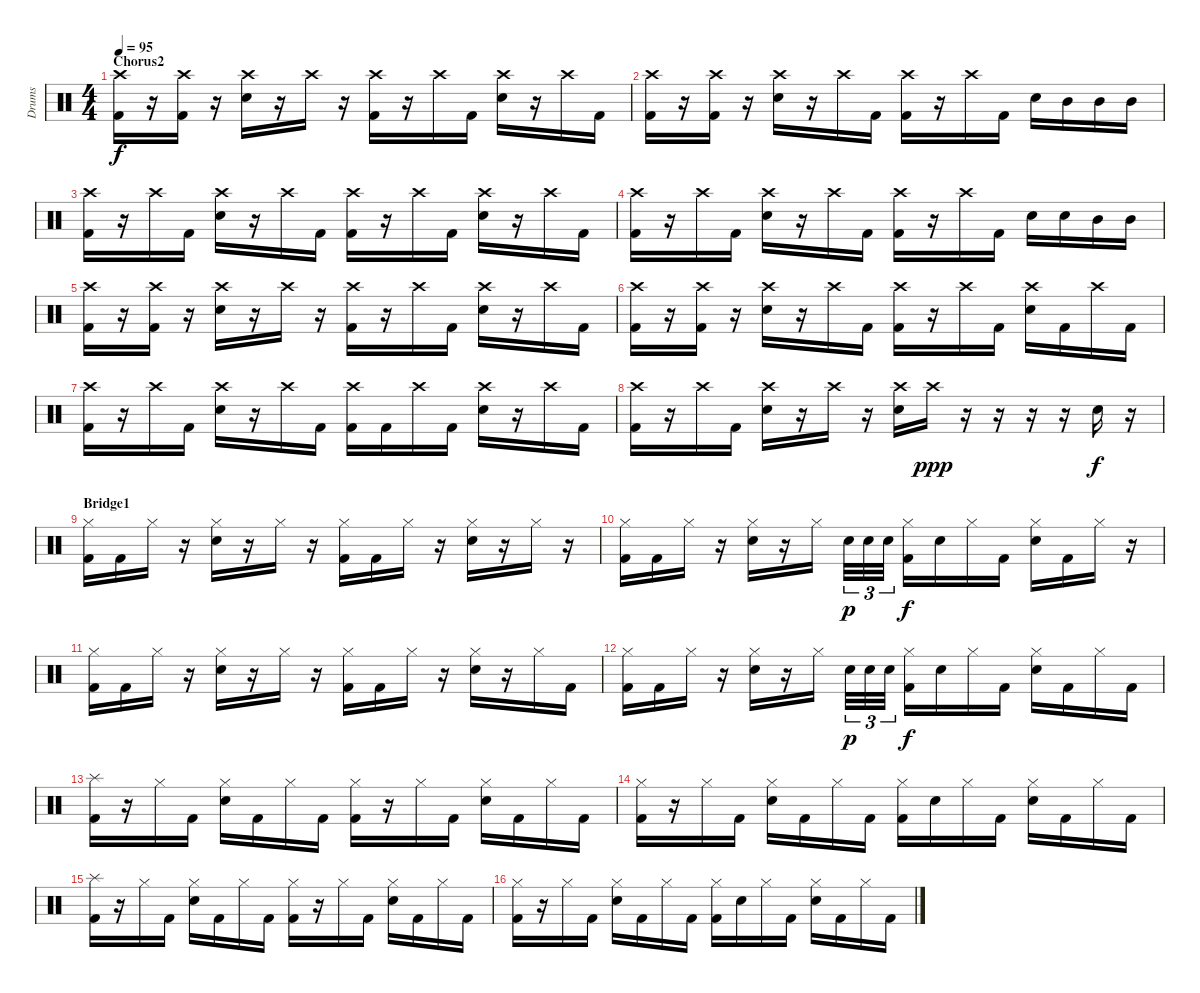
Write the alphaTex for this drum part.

\track ("Drums" "Drums") {instrument percussion}
\staff {score}
\articulation defaults
\ts (4 4)
\section ("" "Chorus2")
\tempo 95
\clef neutral
\ks c
("Crash high (hit)" "Kick (hit) 2").16{dy f} r.16 ("Crash high (hit)" "Kick (hit) 2").16 r.16 ("Crash high (hit)" "Snare (hit) 2").16 r.16 "Crash high (hit)".16 r.16 ("Crash high (hit)" "Kick (hit) 2").16 r.16 "Crash high (hit)".16 "Kick (hit) 2".16 ("Crash high (hit)" "Snare (hit) 2").16 r.16 "Crash high (hit)".16 "Kick (hit) 2".16 |
("Crash high (hit)" "Kick (hit) 2").16 r.16 ("Crash high (hit)" "Kick (hit) 2").16 r.16 ("Crash high (hit)" "Snare (hit) 2").16 r.16 "Crash high (hit)".16 "Kick (hit) 2".16 ("Crash high (hit)" "Kick (hit) 2").16 r.16 "Crash high (hit)".16 "Kick (hit) 2".16 "Snare (hit) 2".16 "Mid Tom (hit)".16 "Mid Tom (hit)".16 "Mid Tom (hit)".16 |
("Crash high (hit)" "Kick (hit) 2").16 r.16 "Crash high (hit)".16 "Kick (hit) 2".16 ("Crash high (hit)" "Snare (hit) 2").16 r.16 "Crash high (hit)".16 "Kick (hit) 2".16 ("Crash high (hit)" "Kick (hit) 2").16 r.16 "Crash high (hit)".16 "Kick (hit) 2".16 ("Crash high (hit)" "Snare (hit) 2").16 r.16 "Crash high (hit)".16 "Kick (hit) 2".16 |
("Crash high (hit)" "Kick (hit) 2").16 r.16 "Crash high (hit)".16 "Kick (hit) 2".16 ("Crash high (hit)" "Snare (hit) 2").16 r.16 "Crash high (hit)".16 "Kick (hit) 2".16 ("Crash high (hit)" "Kick (hit) 2").16 r.16 "Crash high (hit)".16 "Kick (hit) 2".16 "Snare (hit) 2".16 "Snare (hit) 2".16 "Mid Tom (hit)".16 "Mid Tom (hit)".16 |
("Crash high (hit)" "Kick (hit) 2").16 r.16 ("Crash high (hit)" "Kick (hit) 2").16 r.16 ("Crash high (hit)" "Snare (hit) 2").16 r.16 "Crash high (hit)".16 r.16 ("Crash high (hit)" "Kick (hit) 2").16 r.16 "Crash high (hit)".16 "Kick (hit) 2".16 ("Crash high (hit)" "Snare (hit) 2").16 r.16 "Crash high (hit)".16 "Kick (hit) 2".16 |
("Crash high (hit)" "Kick (hit) 2").16 r.16 ("Crash high (hit)" "Kick (hit) 2").16 r.16 ("Crash high (hit)" "Snare (hit) 2").16 r.16 "Crash high (hit)".16 "Kick (hit) 2".16 ("Crash high (hit)" "Kick (hit) 2").16 r.16 "Crash high (hit)".16 "Kick (hit) 2".16 ("Crash high (hit)" "Snare (hit) 2").16 "Kick (hit) 2".16 "Crash high (hit)".16 "Kick (hit) 2".16 |
("Crash high (hit)" "Kick (hit) 2").16 r.16 "Crash high (hit)".16 "Kick (hit) 2".16 ("Crash high (hit)" "Snare (hit) 2").16 r.16 "Crash high (hit)".16 "Kick (hit) 2".16 ("Crash high (hit)" "Kick (hit) 2").16 "Kick (hit) 2".16 "Crash high (hit)".16 "Kick (hit) 2".16 ("Crash high (hit)" "Snare (hit) 2").16 r.16 "Crash high (hit)".16 "Kick (hit) 2".16 |
("Crash high (hit)" "Kick (hit) 2").16 r.16 "Crash high (hit)".16 "Kick (hit) 2".16 ("Crash high (hit)" "Snare (hit) 2").16 r.16 "Crash high (hit)".16 r.16 ("Crash high (hit)" "Snare (hit) 2").16 "Crash high (hit)".16{dy ppp} r.16 r.16 r.16 r.16 "Snare (hit) 2".16{dy f} r.16 |
\section ("" "Bridge1")
("Hi-Hat (closed)" "Kick (hit) 2").16 "Kick (hit) 2".16 "Hi-Hat (closed)".16 r.16 ("Hi-Hat (closed)" "Snare (hit) 2").16 r.16 "Hi-Hat (closed)".16 r.16 ("Hi-Hat (closed)" "Kick (hit) 2").16 "Kick (hit) 2".16 "Hi-Hat (closed)".16 r.16 ("Hi-Hat (closed)" "Snare (hit) 2").16 r.16 "Hi-Hat (closed)".16 r.16 |
("Hi-Hat (closed)" "Kick (hit) 2").16 "Kick (hit) 2".16 "Hi-Hat (closed)".16 r.16 ("Hi-Hat (closed)" "Snare (hit) 2").16 r.16 "Hi-Hat (closed)".16 "Snare (hit) 2".32{tu (3 2) dy p} "Snare (hit) 2".32{tu (3 2)} "Snare (hit) 2".32{tu (3 2)} ("Hi-Hat (closed)" "Kick (hit) 2").16{dy f} "Snare (hit) 2".16 "Hi-Hat (closed)".16 "Kick (hit) 2".16 ("Hi-Hat (closed)" "Snare (hit) 2").16 "Kick (hit) 2".16 "Hi-Hat (closed)".16 r.16 |
("Hi-Hat (closed)" "Kick (hit) 2").16 "Kick (hit) 2".16 "Hi-Hat (closed)".16 r.16 ("Hi-Hat (closed)" "Snare (hit) 2").16 r.16 "Hi-Hat (closed)".16 r.16 ("Hi-Hat (closed)" "Kick (hit) 2").16 "Kick (hit) 2".16 "Hi-Hat (closed)".16 r.16 ("Hi-Hat (closed)" "Snare (hit) 2").16 r.16 "Hi-Hat (closed)".16 "Kick (hit) 2".16 |
("Hi-Hat (closed)" "Kick (hit) 2").16 "Kick (hit) 2".16 "Hi-Hat (closed)".16 r.16 ("Hi-Hat (closed)" "Snare (hit) 2").16 r.16 "Hi-Hat (closed)".16 "Snare (hit) 2".32{tu (3 2) dy p} "Snare (hit) 2".32{tu (3 2)} "Snare (hit) 2".32{tu (3 2)} ("Hi-Hat (closed)" "Kick (hit) 2").16{dy f} "Snare (hit) 2".16 "Hi-Hat (closed)".16 "Kick (hit) 2".16 ("Hi-Hat (closed)" "Snare (hit) 2").16 "Kick (hit) 2".16 "Hi-Hat (closed)".16 "Kick (hit) 2".16 |
("Splash (hit)" "Kick (hit) 2").16 r.16 "Hi-Hat (closed)".16 "Kick (hit) 2".16 ("Hi-Hat (closed)" "Snare (hit) 2").16 "Kick (hit) 2".16 "Hi-Hat (closed)".16 "Kick (hit) 2".16 ("Hi-Hat (closed)" "Kick (hit) 2").16 r.16 "Hi-Hat (closed)".16 "Kick (hit) 2".16 ("Hi-Hat (closed)" "Snare (hit) 2").16 "Kick (hit) 2".16 "Hi-Hat (closed)".16 "Kick (hit) 2".16 |
("Hi-Hat (closed)" "Kick (hit) 2").16 r.16 "Hi-Hat (closed)".16 "Kick (hit) 2".16 ("Hi-Hat (closed)" "Snare (hit) 2").16 "Kick (hit) 2".16 "Hi-Hat (closed)".16 "Kick (hit) 2".16 ("Hi-Hat (closed)" "Kick (hit) 2").16 "Snare (hit) 2".16 "Hi-Hat (closed)".16 "Kick (hit) 2".16 ("Hi-Hat (closed)" "Snare (hit) 2").16 "Kick (hit) 2".16 "Hi-Hat (closed)".16 "Kick (hit) 2".16 |
("Splash (hit)" "Kick (hit) 2").16 r.16 "Hi-Hat (closed)".16 "Kick (hit) 2".16 ("Hi-Hat (closed)" "Snare (hit) 2").16 "Kick (hit) 2".16 "Hi-Hat (closed)".16 "Kick (hit) 2".16 ("Hi-Hat (closed)" "Kick (hit) 2").16 r.16 "Hi-Hat (closed)".16 "Kick (hit) 2".16 ("Hi-Hat (closed)" "Snare (hit) 2").16 "Kick (hit) 2".16 "Hi-Hat (closed)".16 "Kick (hit) 2".16 |
("Hi-Hat (closed)" "Kick (hit) 2").16 r.16 "Hi-Hat (closed)".16 "Kick (hit) 2".16 ("Hi-Hat (closed)" "Snare (hit) 2").16 "Kick (hit) 2".16 "Hi-Hat (closed)".16 "Kick (hit) 2".16 ("Hi-Hat (closed)" "Kick (hit) 2").16 "Snare (hit) 2".16 "Hi-Hat (closed)".16 "Kick (hit) 2".16 ("Hi-Hat (closed)" "Snare (hit) 2").16 "Kick (hit) 2".16 "Hi-Hat (closed)".16 "Kick (hit) 2".16
